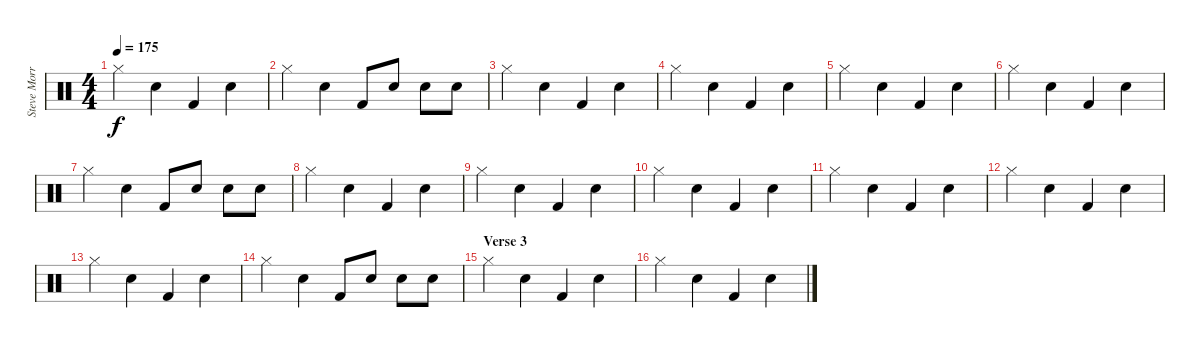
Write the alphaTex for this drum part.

\track ("Steve Morris" "Steve Morr") {instrument percussion}
\staff {score}
\articulation defaults
\ts (4 4)
\tempo 175
\clef neutral
\ks c "Hi-Hat (closed)".4{dy f} "Snare (hit) 2".4 "Kick (hit) 2".4 "Snare (hit) 2".4
|
"Hi-Hat (closed)".4 "Snare (hit) 2".4 "Kick (hit) 2".8 "Snare (hit) 2".8 "Snare (hit) 2".8 "Snare (hit) 2".8 |
"Hi-Hat (closed)".4 "Snare (hit) 2".4 "Kick (hit) 2".4 "Snare (hit) 2".4 |
"Hi-Hat (closed)".4 "Snare (hit) 2".4 "Kick (hit) 2".4 "Snare (hit) 2".4 |
"Hi-Hat (closed)".4 "Snare (hit) 2".4 "Kick (hit) 2".4 "Snare (hit) 2".4 |
"Hi-Hat (closed)".4 "Snare (hit) 2".4 "Kick (hit) 2".4 "Snare (hit) 2".4 |
"Hi-Hat (closed)".4 "Snare (hit) 2".4 "Kick (hit) 2".8 "Snare (hit) 2".8 "Snare (hit) 2".8 "Snare (hit) 2".8 |
"Hi-Hat (closed)".4 "Snare (hit) 2".4 "Kick (hit) 2".4 "Snare (hit) 2".4 |
"Hi-Hat (closed)".4 "Snare (hit) 2".4 "Kick (hit) 2".4 "Snare (hit) 2".4 |
"Hi-Hat (closed)".4 "Snare (hit) 2".4 "Kick (hit) 2".4 "Snare (hit) 2".4 |
"Hi-Hat (closed)".4 "Snare (hit) 2".4 "Kick (hit) 2".4 "Snare (hit) 2".4 |
"Hi-Hat (closed)".4 "Snare (hit) 2".4 "Kick (hit) 2".4 "Snare (hit) 2".4 |
"Hi-Hat (closed)".4 "Snare (hit) 2".4 "Kick (hit) 2".4 "Snare (hit) 2".4 |
"Hi-Hat (closed)".4 "Snare (hit) 2".4 "Kick (hit) 2".8 "Snare (hit) 2".8 "Snare (hit) 2".8 "Snare (hit) 2".8 |
\section ("" "Verse 3")
"Hi-Hat (closed)".4 "Snare (hit) 2".4 "Kick (hit) 2".4 "Snare (hit) 2".4 |
"Hi-Hat (closed)".4 "Snare (hit) 2".4 "Kick (hit) 2".4 "Snare (hit) 2".4
